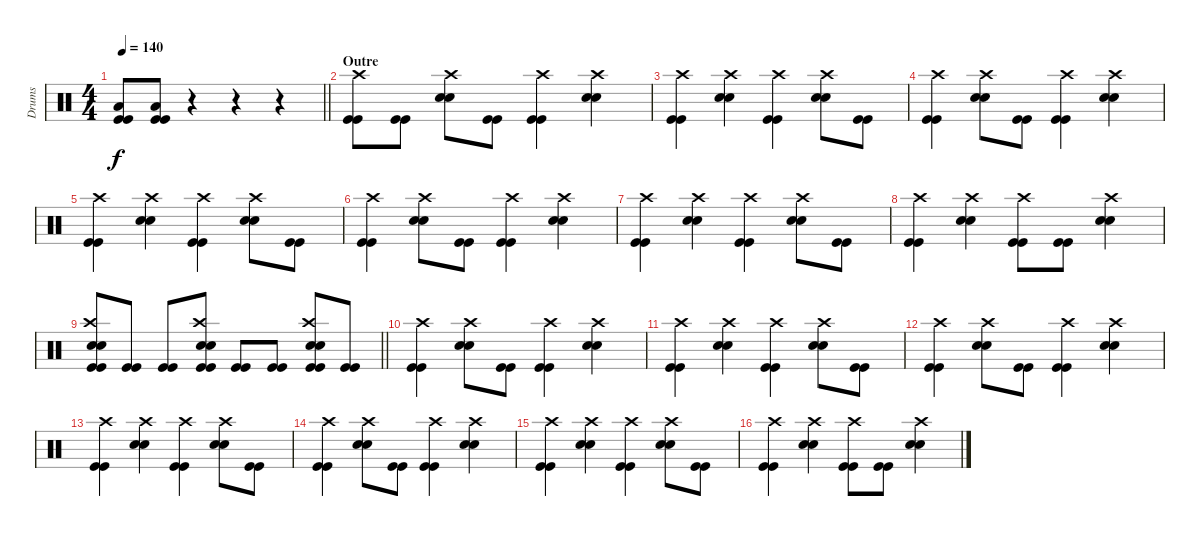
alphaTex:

\track ("Drums" "Drums") {instrument percussion}
\staff {score}
\articulation defaults
\ts (4 4)
\tempo 140
\clef neutral
\barLineRight lightlight
\ks c
("Low Floor Tom (hit)" "Kick (hit)" "Kick (hit)").8{dy f} ("Low Floor Tom (hit)" "Kick (hit)" "Kick (hit)").8 r.4 r.4 r.4 |
\section ("" "Outre")
("Crash high (hit)" "Kick (hit)" "Kick (hit)").8 ("Kick (hit)" "Kick (hit)").8 ("Crash high (hit)" "Snare (hit) 2" "Snare (hit) 2").8 ("Kick (hit)" "Kick (hit)").8 ("Crash high (hit)" "Kick (hit)" "Kick (hit)").4 ("Crash high (hit)" "Snare (hit) 2" "Snare (hit) 2").4 |
("Crash high (hit)" "Kick (hit)" "Kick (hit)").4 ("Crash high (hit)" "Snare (hit) 2" "Snare (hit) 2").4 ("Crash high (hit)" "Kick (hit)" "Kick (hit)").4 ("Crash high (hit)" "Snare (hit) 2" "Snare (hit) 2").8 ("Kick (hit)" "Kick (hit)").8 |
("Crash high (hit)" "Kick (hit)" "Kick (hit)").4 ("Crash high (hit)" "Snare (hit) 2" "Snare (hit) 2").8 ("Kick (hit)" "Kick (hit)").8 ("Crash high (hit)" "Kick (hit)" "Kick (hit)").4 ("Crash high (hit)" "Snare (hit) 2" "Snare (hit) 2").4 |
("Crash high (hit)" "Kick (hit)" "Kick (hit)").4 ("Crash high (hit)" "Snare (hit) 2" "Snare (hit) 2").4 ("Crash high (hit)" "Kick (hit)" "Kick (hit)").4 ("Crash high (hit)" "Snare (hit) 2" "Snare (hit) 2").8 ("Kick (hit)" "Kick (hit)").8 |
("Crash high (hit)" "Kick (hit)" "Kick (hit)").4 ("Crash high (hit)" "Snare (hit) 2" "Snare (hit) 2").8 ("Kick (hit)" "Kick (hit)").8 ("Crash high (hit)" "Kick (hit)" "Kick (hit)").4 ("Crash high (hit)" "Snare (hit) 2" "Snare (hit) 2").4 |
("Crash high (hit)" "Kick (hit)" "Kick (hit)").4 ("Crash high (hit)" "Snare (hit) 2" "Snare (hit) 2").4 ("Crash high (hit)" "Kick (hit)" "Kick (hit)").4 ("Crash high (hit)" "Snare (hit) 2" "Snare (hit) 2").8 ("Kick (hit)" "Kick (hit)").8 |
("Crash high (hit)" "Kick (hit)" "Kick (hit)").4 ("Crash high (hit)" "Snare (hit) 2" "Snare (hit) 2").4 ("Crash high (hit)" "Kick (hit)" "Kick (hit)").8 ("Kick (hit)" "Kick (hit)").8 ("Crash high (hit)" "Snare (hit) 2" "Snare (hit) 2").4 |
\barLineRight lightlight
("Crash high (hit)" "Snare (hit) 2" "Snare (hit) 2" "Kick (hit)" "Kick (hit)").8 ("Kick (hit)" "Kick (hit)").8 ("Kick (hit)" "Kick (hit)").8 ("Crash high (hit)" "Snare (hit) 2" "Snare (hit) 2" "Kick (hit)" "Kick (hit)").8 ("Kick (hit)" "Kick (hit)").8 ("Kick (hit)" "Kick (hit)").8 ("Crash high (hit)" "Snare (hit) 2" "Snare (hit) 2" "Kick (hit)" "Kick (hit)").8 ("Kick (hit)" "Kick (hit)").8 |
("Crash high (hit)" "Kick (hit)" "Kick (hit)").4 ("Crash high (hit)" "Snare (hit) 2" "Snare (hit) 2").8 ("Kick (hit)" "Kick (hit)").8 ("Crash high (hit)" "Kick (hit)" "Kick (hit)").4 ("Crash high (hit)" "Snare (hit) 2" "Snare (hit) 2").4 |
("Crash high (hit)" "Kick (hit)" "Kick (hit)").4 ("Crash high (hit)" "Snare (hit) 2" "Snare (hit) 2").4 ("Crash high (hit)" "Kick (hit)" "Kick (hit)").4 ("Crash high (hit)" "Snare (hit) 2" "Snare (hit) 2").8 ("Kick (hit)" "Kick (hit)").8 |
("Crash high (hit)" "Kick (hit)" "Kick (hit)").4 ("Crash high (hit)" "Snare (hit) 2" "Snare (hit) 2").8 ("Kick (hit)" "Kick (hit)").8 ("Crash high (hit)" "Kick (hit)" "Kick (hit)").4 ("Crash high (hit)" "Snare (hit) 2" "Snare (hit) 2").4 |
("Crash high (hit)" "Kick (hit)" "Kick (hit)").4 ("Crash high (hit)" "Snare (hit) 2" "Snare (hit) 2").4 ("Crash high (hit)" "Kick (hit)" "Kick (hit)").4 ("Crash high (hit)" "Snare (hit) 2" "Snare (hit) 2").8 ("Kick (hit)" "Kick (hit)").8 |
("Crash high (hit)" "Kick (hit)" "Kick (hit)").4 ("Crash high (hit)" "Snare (hit) 2" "Snare (hit) 2").8 ("Kick (hit)" "Kick (hit)").8 ("Crash high (hit)" "Kick (hit)" "Kick (hit)").4 ("Crash high (hit)" "Snare (hit) 2" "Snare (hit) 2").4 |
("Crash high (hit)" "Kick (hit)" "Kick (hit)").4 ("Crash high (hit)" "Snare (hit) 2" "Snare (hit) 2").4 ("Crash high (hit)" "Kick (hit)" "Kick (hit)").4 ("Crash high (hit)" "Snare (hit) 2" "Snare (hit) 2").8 ("Kick (hit)" "Kick (hit)").8 |
("Crash high (hit)" "Kick (hit)" "Kick (hit)").4 ("Crash high (hit)" "Snare (hit) 2" "Snare (hit) 2").4 ("Crash high (hit)" "Kick (hit)" "Kick (hit)").8 ("Kick (hit)" "Kick (hit)").8 ("Crash high (hit)" "Snare (hit) 2" "Snare (hit) 2").4
